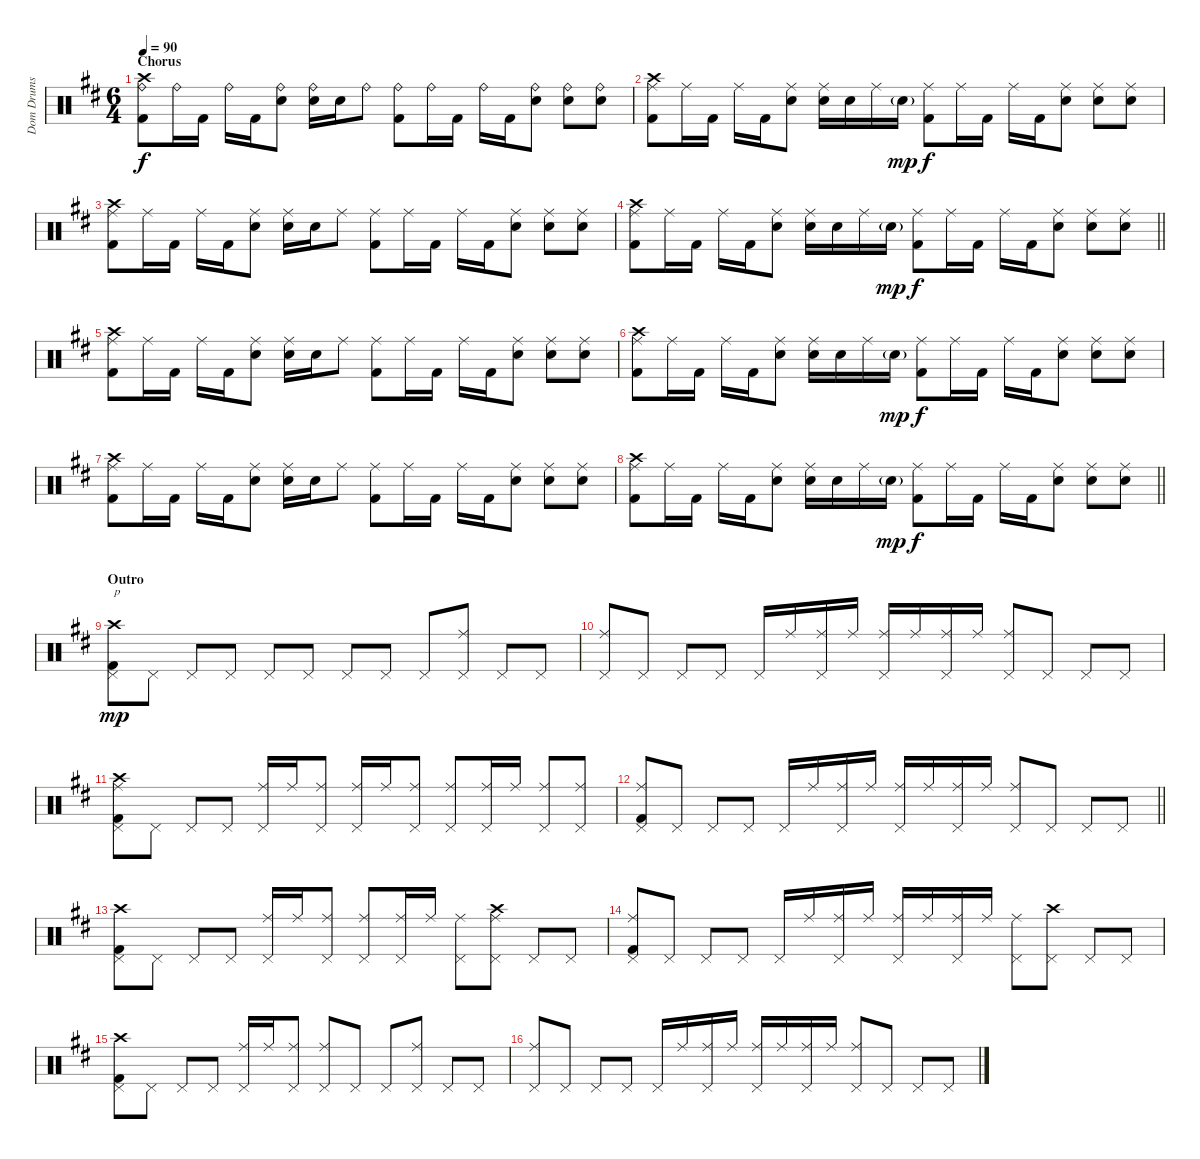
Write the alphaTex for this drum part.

\track ("Dom Drums" "Dom Drums") {instrument percussion}
\staff {score}
\articulation defaults
\ts (6 4)
\section ("" "Chorus")
\tempo 90
\clef neutral
\ks bminor
("Crash high (hit)" "Ride (bell)" "Kick (hit) 2").8{dy f} "Ride (bell)".16 "Kick (hit) 2".16 "Ride (bell)".16 "Kick (hit) 2".16 ("Ride (bell)" "Electric Snare (hit)").8 ("Ride (bell)" "Electric Snare (hit)").16 "Electric Snare (hit)".16 "Ride (bell)".8 ("Ride (bell)" "Kick (hit) 2").8 "Ride (bell)".16 "Kick (hit) 2".16 "Ride (bell)".16 "Kick (hit) 2".16 ("Ride (bell)" "Electric Snare (hit)").8 ("Ride (bell)" "Electric Snare (hit)").8 ("Ride (bell)" "Electric Snare (hit)").8 |
("Crash high (hit)" "Ride (middle)" "Kick (hit) 2").8 "Ride (middle)".16 "Kick (hit) 2".16 "Ride (middle)".16 "Kick (hit) 2".16 ("Ride (middle)" "Electric Snare (hit)").8 ("Ride (middle)" "Electric Snare (hit)").16 "Electric Snare (hit)".16 "Ride (middle)".16 "Electric Snare (hit)"{g}.16{dy mp} ("Ride (middle)" "Kick (hit) 2").8{dy f} "Ride (middle)".16 "Kick (hit) 2".16 "Ride (middle)".16 "Kick (hit) 2".16 ("Ride (middle)" "Electric Snare (hit)").8 ("Ride (middle)" "Electric Snare (hit)").8 ("Ride (middle)" "Electric Snare (hit)").8 |
("Crash high (hit)" "Ride (middle)" "Kick (hit) 2").8 "Ride (middle)".16 "Kick (hit) 2".16 "Ride (middle)".16 "Kick (hit) 2".16 ("Ride (middle)" "Electric Snare (hit)").8 ("Ride (middle)" "Electric Snare (hit)").16 "Electric Snare (hit)".16 "Ride (middle)".8 ("Ride (middle)" "Kick (hit) 2").8 "Ride (middle)".16 "Kick (hit) 2".16 "Ride (middle)".16 "Kick (hit) 2".16 ("Ride (middle)" "Electric Snare (hit)").8 ("Ride (middle)" "Electric Snare (hit)").8 ("Ride (middle)" "Electric Snare (hit)").8 |
\barLineRight lightlight
("Crash high (hit)" "Ride (middle)" "Kick (hit) 2").8 "Ride (middle)".16 "Kick (hit) 2".16 "Ride (middle)".16 "Kick (hit) 2".16 ("Ride (middle)" "Electric Snare (hit)").8 ("Ride (middle)" "Electric Snare (hit)").16 "Electric Snare (hit)".16 "Ride (middle)".16 "Electric Snare (hit)"{g}.16{dy mp} ("Ride (middle)" "Kick (hit) 2").8{dy f} "Ride (middle)".16 "Kick (hit) 2".16 "Ride (middle)".16 "Kick (hit) 2".16 ("Ride (middle)" "Electric Snare (hit)").8 ("Ride (middle)" "Electric Snare (hit)").8 ("Ride (middle)" "Electric Snare (hit)").8 |
\section ("" "")
("Crash high (hit)" "Ride (middle)" "Kick (hit) 2").8 "Ride (middle)".16 "Kick (hit) 2".16 "Ride (middle)".16 "Kick (hit) 2".16 ("Ride (middle)" "Electric Snare (hit)").8 ("Ride (middle)" "Electric Snare (hit)").16 "Electric Snare (hit)".16 "Ride (middle)".8 ("Ride (middle)" "Kick (hit) 2").8 "Ride (middle)".16 "Kick (hit) 2".16 "Ride (middle)".16 "Kick (hit) 2".16 ("Ride (middle)" "Electric Snare (hit)").8 ("Ride (middle)" "Electric Snare (hit)").8 ("Ride (middle)" "Electric Snare (hit)").8 |
("Crash high (hit)" "Ride (middle)" "Kick (hit) 2").8 "Ride (middle)".16 "Kick (hit) 2".16 "Ride (middle)".16 "Kick (hit) 2".16 ("Ride (middle)" "Electric Snare (hit)").8 ("Ride (middle)" "Electric Snare (hit)").16 "Electric Snare (hit)".16 "Ride (middle)".16 "Electric Snare (hit)"{g}.16{dy mp} ("Ride (middle)" "Kick (hit) 2").8{dy f} "Ride (middle)".16 "Kick (hit) 2".16 "Ride (middle)".16 "Kick (hit) 2".16 ("Ride (middle)" "Electric Snare (hit)").8 ("Ride (middle)" "Electric Snare (hit)").8 ("Ride (middle)" "Electric Snare (hit)").8 |
("Crash high (hit)" "Ride (middle)" "Kick (hit) 2").8 "Ride (middle)".16 "Kick (hit) 2".16 "Ride (middle)".16 "Kick (hit) 2".16 ("Ride (middle)" "Electric Snare (hit)").8 ("Ride (middle)" "Electric Snare (hit)").16 "Electric Snare (hit)".16 "Ride (middle)".8 ("Ride (middle)" "Kick (hit) 2").8 "Ride (middle)".16 "Kick (hit) 2".16 "Ride (middle)".16 "Kick (hit) 2".16 ("Ride (middle)" "Electric Snare (hit)").8 ("Ride (middle)" "Electric Snare (hit)").8 ("Ride (middle)" "Electric Snare (hit)").8 |
\barLineRight lightlight
("Crash high (hit)" "Ride (middle)" "Kick (hit) 2").8 "Ride (middle)".16 "Kick (hit) 2".16 "Ride (middle)".16 "Kick (hit) 2".16 ("Ride (middle)" "Electric Snare (hit)").8 ("Ride (middle)" "Electric Snare (hit)").16 "Electric Snare (hit)".16 "Ride (middle)".16 "Electric Snare (hit)"{g}.16{dy mp} ("Ride (middle)" "Kick (hit) 2").8{dy f} "Ride (middle)".16 "Kick (hit) 2".16 "Ride (middle)".16 "Kick (hit) 2".16 ("Ride (middle)" "Electric Snare (hit)").8 ("Ride (middle)" "Electric Snare (hit)").8 ("Ride (middle)" "Electric Snare (hit)").8 |
\section ("" "Outro")
("Crash high (hit)" "Pedal Hi-Hat (hit)" "Kick (hit) 2").8{txt "p" dy mp} "Pedal Hi-Hat (hit)".8 "Pedal Hi-Hat (hit)".8 "Pedal Hi-Hat (hit)".8 "Pedal Hi-Hat (hit)".8 "Pedal Hi-Hat (hit)".8 "Pedal Hi-Hat (hit)".8 "Pedal Hi-Hat (hit)".8 "Pedal Hi-Hat (hit)".8 ("Ride (middle)" "Pedal Hi-Hat (hit)").8 "Pedal Hi-Hat (hit)".8 "Pedal Hi-Hat (hit)".8 |
("Ride (middle)" "Pedal Hi-Hat (hit)").8 "Pedal Hi-Hat (hit)".8 "Pedal Hi-Hat (hit)".8 "Pedal Hi-Hat (hit)".8 "Pedal Hi-Hat (hit)".16 "Ride (middle)".16 ("Ride (middle)" "Pedal Hi-Hat (hit)").16 "Ride (middle)".16 ("Ride (middle)" "Pedal Hi-Hat (hit)").16 "Ride (middle)".16 ("Ride (middle)" "Pedal Hi-Hat (hit)").16 "Ride (middle)".16 ("Ride (middle)" "Pedal Hi-Hat (hit)").8 "Pedal Hi-Hat (hit)".8 "Pedal Hi-Hat (hit)".8 "Pedal Hi-Hat (hit)".8 |
("Crash high (hit)" "Ride (middle)" "Pedal Hi-Hat (hit)" "Kick (hit) 2").8 "Pedal Hi-Hat (hit)".8 "Pedal Hi-Hat (hit)".8 "Pedal Hi-Hat (hit)".8 ("Ride (middle)" "Pedal Hi-Hat (hit)").16 "Ride (middle)".16 ("Ride (middle)" "Pedal Hi-Hat (hit)").8 ("Ride (middle)" "Pedal Hi-Hat (hit)").16 "Ride (middle)".16 ("Ride (middle)" "Pedal Hi-Hat (hit)").8 ("Ride (middle)" "Pedal Hi-Hat (hit)").8 ("Ride (middle)" "Pedal Hi-Hat (hit)").16 "Ride (middle)".16 ("Ride (middle)" "Pedal Hi-Hat (hit)").8 ("Ride (middle)" "Pedal Hi-Hat (hit)").8 |
\barLineRight lightlight
("Ride (middle)" "Pedal Hi-Hat (hit)" "Kick (hit) 2").8 "Pedal Hi-Hat (hit)".8 "Pedal Hi-Hat (hit)".8 "Pedal Hi-Hat (hit)".8 "Pedal Hi-Hat (hit)".16 "Ride (middle)".16 ("Ride (middle)" "Pedal Hi-Hat (hit)").16 "Ride (middle)".16 ("Ride (middle)" "Pedal Hi-Hat (hit)").16 "Ride (middle)".16 ("Ride (middle)" "Pedal Hi-Hat (hit)").16 "Ride (middle)".16 ("Ride (middle)" "Pedal Hi-Hat (hit)").8 "Pedal Hi-Hat (hit)".8 "Pedal Hi-Hat (hit)".8 "Pedal Hi-Hat (hit)".8 |
\section ("" "")
("Crash high (hit)" "Pedal Hi-Hat (hit)" "Kick (hit) 2").8 "Pedal Hi-Hat (hit)".8 "Pedal Hi-Hat (hit)".8 "Pedal Hi-Hat (hit)".8 ("Ride (middle)" "Pedal Hi-Hat (hit)").16 "Ride (middle)".16 ("Ride (middle)" "Pedal Hi-Hat (hit)").8 ("Ride (middle)" "Pedal Hi-Hat (hit)").8 ("Ride (middle)" "Pedal Hi-Hat (hit)").16 "Ride (middle)".16 ("Ride (middle)" "Pedal Hi-Hat (hit)").8 ("Crash high (hit)" "Ride (middle)" "Pedal Hi-Hat (hit)").8 "Pedal Hi-Hat (hit)".8 "Pedal Hi-Hat (hit)".8 |
("Ride (middle)" "Pedal Hi-Hat (hit)" "Kick (hit) 2").8 "Pedal Hi-Hat (hit)".8 "Pedal Hi-Hat (hit)".8 "Pedal Hi-Hat (hit)".8 "Pedal Hi-Hat (hit)".16 "Ride (middle)".16 ("Ride (middle)" "Pedal Hi-Hat (hit)").16 "Ride (middle)".16 ("Ride (middle)" "Pedal Hi-Hat (hit)").16 "Ride (middle)".16 ("Ride (middle)" "Pedal Hi-Hat (hit)").16 "Ride (middle)".16 ("Ride (middle)" "Pedal Hi-Hat (hit)").8 ("Crash high (hit)" "Pedal Hi-Hat (hit)").8 "Pedal Hi-Hat (hit)".8 "Pedal Hi-Hat (hit)".8 |
("Crash high (hit)" "Pedal Hi-Hat (hit)" "Kick (hit) 2").8 "Pedal Hi-Hat (hit)".8 "Pedal Hi-Hat (hit)".8 "Pedal Hi-Hat (hit)".8 ("Ride (middle)" "Pedal Hi-Hat (hit)").16 "Ride (middle)".16 ("Ride (middle)" "Pedal Hi-Hat (hit)").8 ("Ride (middle)" "Pedal Hi-Hat (hit)").8 "Pedal Hi-Hat (hit)".8 "Pedal Hi-Hat (hit)".8 ("Ride (middle)" "Pedal Hi-Hat (hit)").8 "Pedal Hi-Hat (hit)".8 "Pedal Hi-Hat (hit)".8 |
("Ride (middle)" "Pedal Hi-Hat (hit)").8 "Pedal Hi-Hat (hit)".8 "Pedal Hi-Hat (hit)".8 "Pedal Hi-Hat (hit)".8 "Pedal Hi-Hat (hit)".16 "Ride (middle)".16 ("Ride (middle)" "Pedal Hi-Hat (hit)").16 "Ride (middle)".16 ("Ride (middle)" "Pedal Hi-Hat (hit)").16 "Ride (middle)".16 ("Ride (middle)" "Pedal Hi-Hat (hit)").16 "Ride (middle)".16 ("Ride (middle)" "Pedal Hi-Hat (hit)").8 "Pedal Hi-Hat (hit)".8 "Pedal Hi-Hat (hit)".8 "Pedal Hi-Hat (hit)".8
